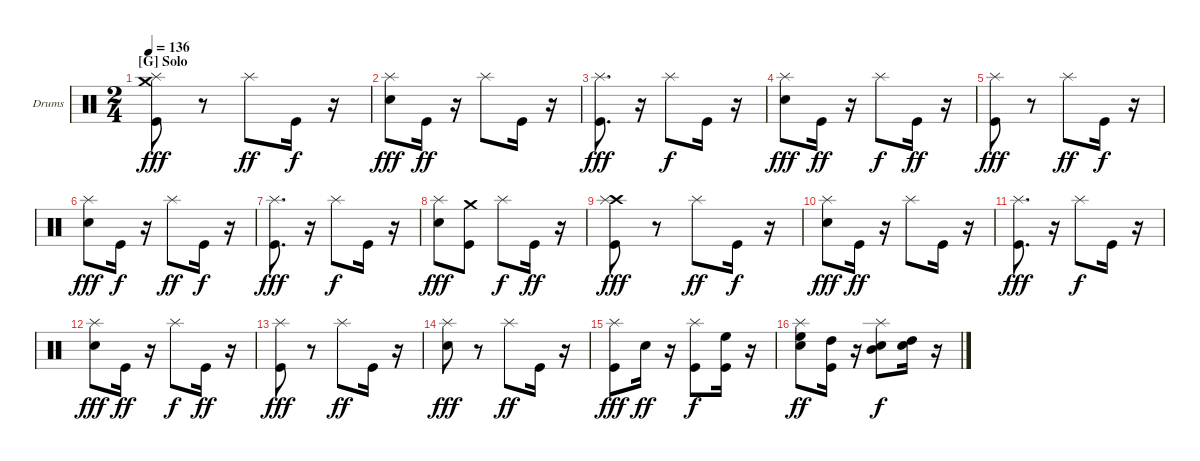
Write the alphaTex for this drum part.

\bracketExtendMode groupsimilarinstruments
\firstSystemTrackNameOrientation horizontal
\otherSystemsTrackNameOrientation horizontal
\track ("Drumkit" "Drums") {solo instrument percussion}
\staff {score}
\articulation defaults
\ts (2 4)
\section ("G" "Solo")
\tempo 136
\clef neutral
\ks c
("Crash medium (hit)" "Splash (hit)" "Kick (hit)").8{dy fff} r.8 "Splash (hit)".8{dy ff} "Kick (hit)".16{dy f} r.16 |
("Splash (hit)" "Snare (hit) 2").8{dy fff} "Kick (hit)".16{dy ff} r.16 "Splash (hit)".8 "Kick (hit)".16 r.16 |
("Splash (hit)" "Kick (hit)").8{d dy fff} r.16 "Splash (hit)".8{dy f} "Kick (hit)".16 r.16 |
("Splash (hit)" "Snare (hit) 2").8{dy fff} "Kick (hit)".16{dy ff} r.16 "Splash (hit)".8{dy f} "Kick (hit)".16{dy ff} r.16 |
("Splash (hit)" "Kick (hit)").8{dy fff} r.8 "Splash (hit)".8{dy ff} "Kick (hit)".16{dy f} r.16 |
("Splash (hit)" "Snare (hit) 2").8{dy fff} "Kick (hit)".16{dy f} r.16 "Splash (hit)".8{dy ff} "Kick (hit)".16{dy f} r.16 |
("Splash (hit)" "Kick (hit)").8{d dy fff} r.16 "Splash (hit)".8{dy f} "Kick (hit)".16 r.16 |
("Splash (hit)" "Snare (hit) 2").8{dy fff} ("Crash medium (hit)" "Kick (hit)").8 "Splash (hit)".8{dy f} "Kick (hit)".16{dy ff} r.16 |
("Crash high (hit)" "Splash (hit)" "Kick (hit)").8{dy fff} r.8 "Splash (hit)".8{dy ff} "Kick (hit)".16{dy f} r.16 |
("Splash (hit)" "Snare (hit) 2").8{dy fff} "Kick (hit)".16{dy ff} r.16 "Splash (hit)".8 "Kick (hit)".16 r.16 |
("Splash (hit)" "Kick (hit)").8{d dy fff} r.16 "Splash (hit)".8{dy f} "Kick (hit)".16 r.16 |
("Splash (hit)" "Snare (hit) 2").8{dy fff} "Kick (hit)".16{dy ff} r.16 "Splash (hit)".8{dy f} "Kick (hit)".16{dy ff} r.16 |
("Splash (hit)" "Kick (hit)").8{dy fff} r.8 "Splash (hit)".8{dy ff} "Kick (hit)".16 r.16 |
("Splash (hit)" "Snare (hit) 2").8{dy fff} r.8 "Splash (hit)".8{dy ff} "Kick (hit)".16 r.16 |
("Splash (hit)" "Kick (hit)").8{dy fff} "Snare (hit) 2".16{dy ff} r.16 ("Splash (hit)" "Kick (hit)").8{dy f} ("Kick (hit)" "High Floor Tom (hit)").16 r.16 |
("High Floor Tom (hit)" "Splash (hit)" "Snare (hit) 2").8{dy ff} ("High Tom (hit)" "Kick (hit)").16 r.16 ("Mid Tom (hit)" "Splash (hit)" "Snare (hit) 2").8{dy f} ("High Tom (hit)" "Snare (hit) 2").16 r.16
